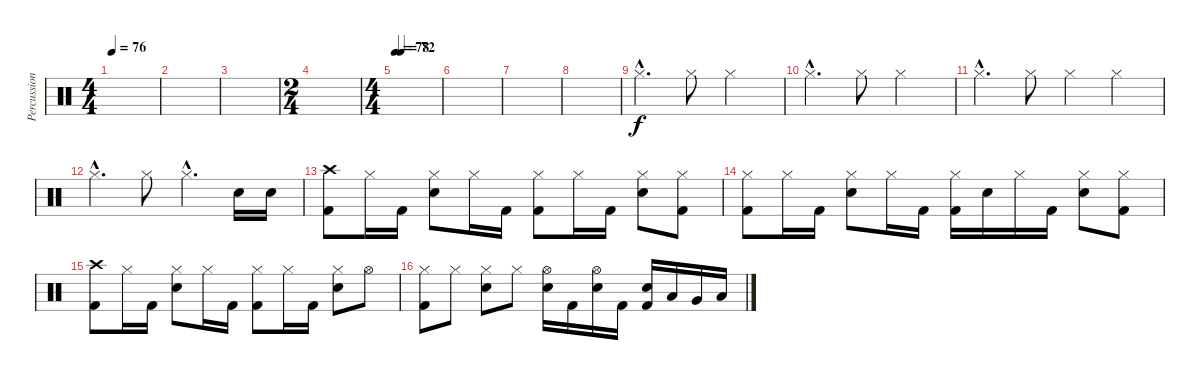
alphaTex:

\track ("Percussion" "Percussion") {instrument percussion}
\staff {score}
\articulation defaults
\ts (4 4)
\tempo 76
\tempo 70
\tempo 76
\clef neutral
\ks c
|
|
|
\ts (2 4)
|
\ts (4 4)
\tempo 78
\tempo (72 0.125)
|
|
|
|
"Hi-Hat (closed)"{hac}.4{d} "Hi-Hat (closed)".8 "Hi-Hat (closed)".2 |
"Hi-Hat (closed)"{hac}.4{d} "Hi-Hat (closed)".8 "Hi-Hat (closed)".2 |
"Hi-Hat (closed)"{hac}.4{d} "Hi-Hat (closed)".8 "Hi-Hat (closed)".4 "Hi-Hat (closed)".4 |
"Hi-Hat (closed)"{hac}.4{d} "Hi-Hat (closed)".8 "Hi-Hat (closed)"{hac}.4{d} "Snare (hit)".16 "Electric Snare (hit)".16 |
("Crash high (hit)" "Kick (hit) 2").8 "Hi-Hat (closed)".16 "Kick (hit) 2".16 ("Hi-Hat (closed)" "Electric Snare (hit)").8 "Hi-Hat (closed)".16 "Kick (hit) 2".16 ("Hi-Hat (closed)" "Kick (hit) 2").8 "Hi-Hat (closed)".16 "Kick (hit) 2".16 ("Hi-Hat (closed)" "Electric Snare (hit)").8 ("Hi-Hat (closed)" "Kick (hit) 2").8 |
("Hi-Hat (closed)" "Kick (hit) 2").8 "Hi-Hat (closed)".16 "Kick (hit) 2".16 ("Hi-Hat (closed)" "Electric Snare (hit)").8 "Hi-Hat (closed)".16 "Kick (hit) 2".16 ("Hi-Hat (closed)" "Kick (hit) 2").16 "Electric Snare (hit)".16 "Hi-Hat (closed)".16 "Kick (hit) 2".16 ("Hi-Hat (closed)" "Electric Snare (hit)").8 ("Hi-Hat (closed)" "Kick (hit) 2").8 |
("Crash high (hit)" "Kick (hit) 2").8 "Hi-Hat (closed)".16 "Kick (hit) 2".16 ("Hi-Hat (closed)" "Electric Snare (hit)").8 "Hi-Hat (closed)".16 "Kick (hit) 2".16 ("Hi-Hat (closed)" "Kick (hit) 2").8 "Hi-Hat (closed)".16 "Kick (hit) 2".16 ("Hi-Hat (closed)" "Electric Snare (hit)").8 "Hi-Hat (open)".8 |
("Hi-Hat (closed)" "Kick (hit) 2").8 "Hi-Hat (closed)".8 ("Hi-Hat (closed)" "Electric Snare (hit)").8 "Hi-Hat (closed)".8 ("Hi-Hat (open)" "Electric Snare (hit)").16 "Kick (hit) 2".16 ("Hi-Hat (open)" "Electric Snare (hit)").16 "Kick (hit) 2".16 ("Electric Snare (hit)" "Kick (hit) 2").16 "Low Tom (hit)".16 "Very Low Tom (hit)".16 "Low Floor Tom (hit)".16
